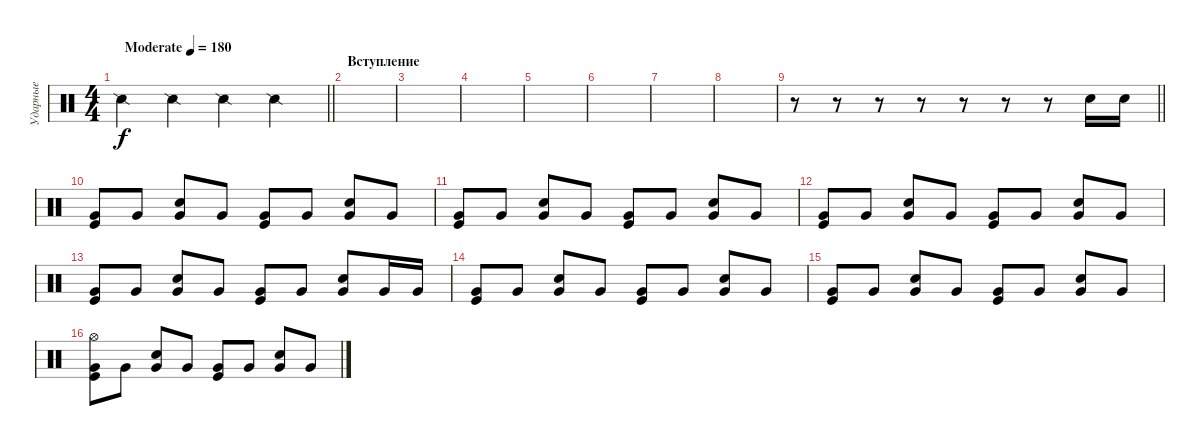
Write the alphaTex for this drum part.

\track ("Ударные" "Ударные") {instrument percussion}
\staff {score}
\articulation defaults
\ts (4 4)
\tempo (180 "Moderate")
\clef neutral
\barLineRight lightlight
\ks c "Snare (side stick) 2".4{dy f} "Snare (side stick) 2".4 "Snare (side stick) 2".4 "Snare (side stick) 2".4
|
\section ("" "Вступление")
|
|
|
|
|
|
|
\barLineRight lightlight
r.8 r.8 r.8 r.8 r.8 r.8 r.8 "Electric Snare (hit)".16 "Electric Snare (hit)".16 |
\section ("" " ")
("Very Low Tom (hit)" "Kick (hit)").8 "Very Low Tom (hit)".8 ("Very Low Tom (hit)" "Electric Snare (hit)").8 "Very Low Tom (hit)".8 ("Very Low Tom (hit)" "Kick (hit)").8 "Very Low Tom (hit)".8 ("Very Low Tom (hit)" "Electric Snare (hit)").8 "Very Low Tom (hit)".8 |
("Very Low Tom (hit)" "Kick (hit)").8 "Very Low Tom (hit)".8 ("Very Low Tom (hit)" "Electric Snare (hit)").8 "Very Low Tom (hit)".8 ("Very Low Tom (hit)" "Kick (hit)").8 "Very Low Tom (hit)".8 ("Very Low Tom (hit)" "Electric Snare (hit)").8 "Very Low Tom (hit)".8 |
("Very Low Tom (hit)" "Kick (hit)").8 "Very Low Tom (hit)".8 ("Very Low Tom (hit)" "Electric Snare (hit)").8 "Very Low Tom (hit)".8 ("Very Low Tom (hit)" "Kick (hit)").8 "Very Low Tom (hit)".8 ("Very Low Tom (hit)" "Electric Snare (hit)").8 "Very Low Tom (hit)".8 |
("Very Low Tom (hit)" "Kick (hit)").8 "Very Low Tom (hit)".8 ("Very Low Tom (hit)" "Electric Snare (hit)").8 "Very Low Tom (hit)".8 ("Very Low Tom (hit)" "Kick (hit)").8 "Very Low Tom (hit)".8 ("Very Low Tom (hit)" "Electric Snare (hit)").8 "Very Low Tom (hit)".16 "Very Low Tom (hit)".16 |
("Very Low Tom (hit)" "Kick (hit)").8 "Very Low Tom (hit)".8 ("Very Low Tom (hit)" "Electric Snare (hit)").8 "Very Low Tom (hit)".8 ("Very Low Tom (hit)" "Kick (hit)").8 "Very Low Tom (hit)".8 ("Very Low Tom (hit)" "Electric Snare (hit)").8 "Very Low Tom (hit)".8 |
("Very Low Tom (hit)" "Kick (hit)").8 "Very Low Tom (hit)".8 ("Very Low Tom (hit)" "Electric Snare (hit)").8 "Very Low Tom (hit)".8 ("Very Low Tom (hit)" "Kick (hit)").8 "Very Low Tom (hit)".8 ("Very Low Tom (hit)" "Electric Snare (hit)").8 "Very Low Tom (hit)".8 |
("Very Low Tom (hit)" "Kick (hit)" "Hi-Hat (open)").8 "Very Low Tom (hit)".8 ("Very Low Tom (hit)" "Electric Snare (hit)").8 "Very Low Tom (hit)".8 ("Very Low Tom (hit)" "Kick (hit)").8 "Very Low Tom (hit)".8 ("Very Low Tom (hit)" "Electric Snare (hit)").8 "Very Low Tom (hit)".8
